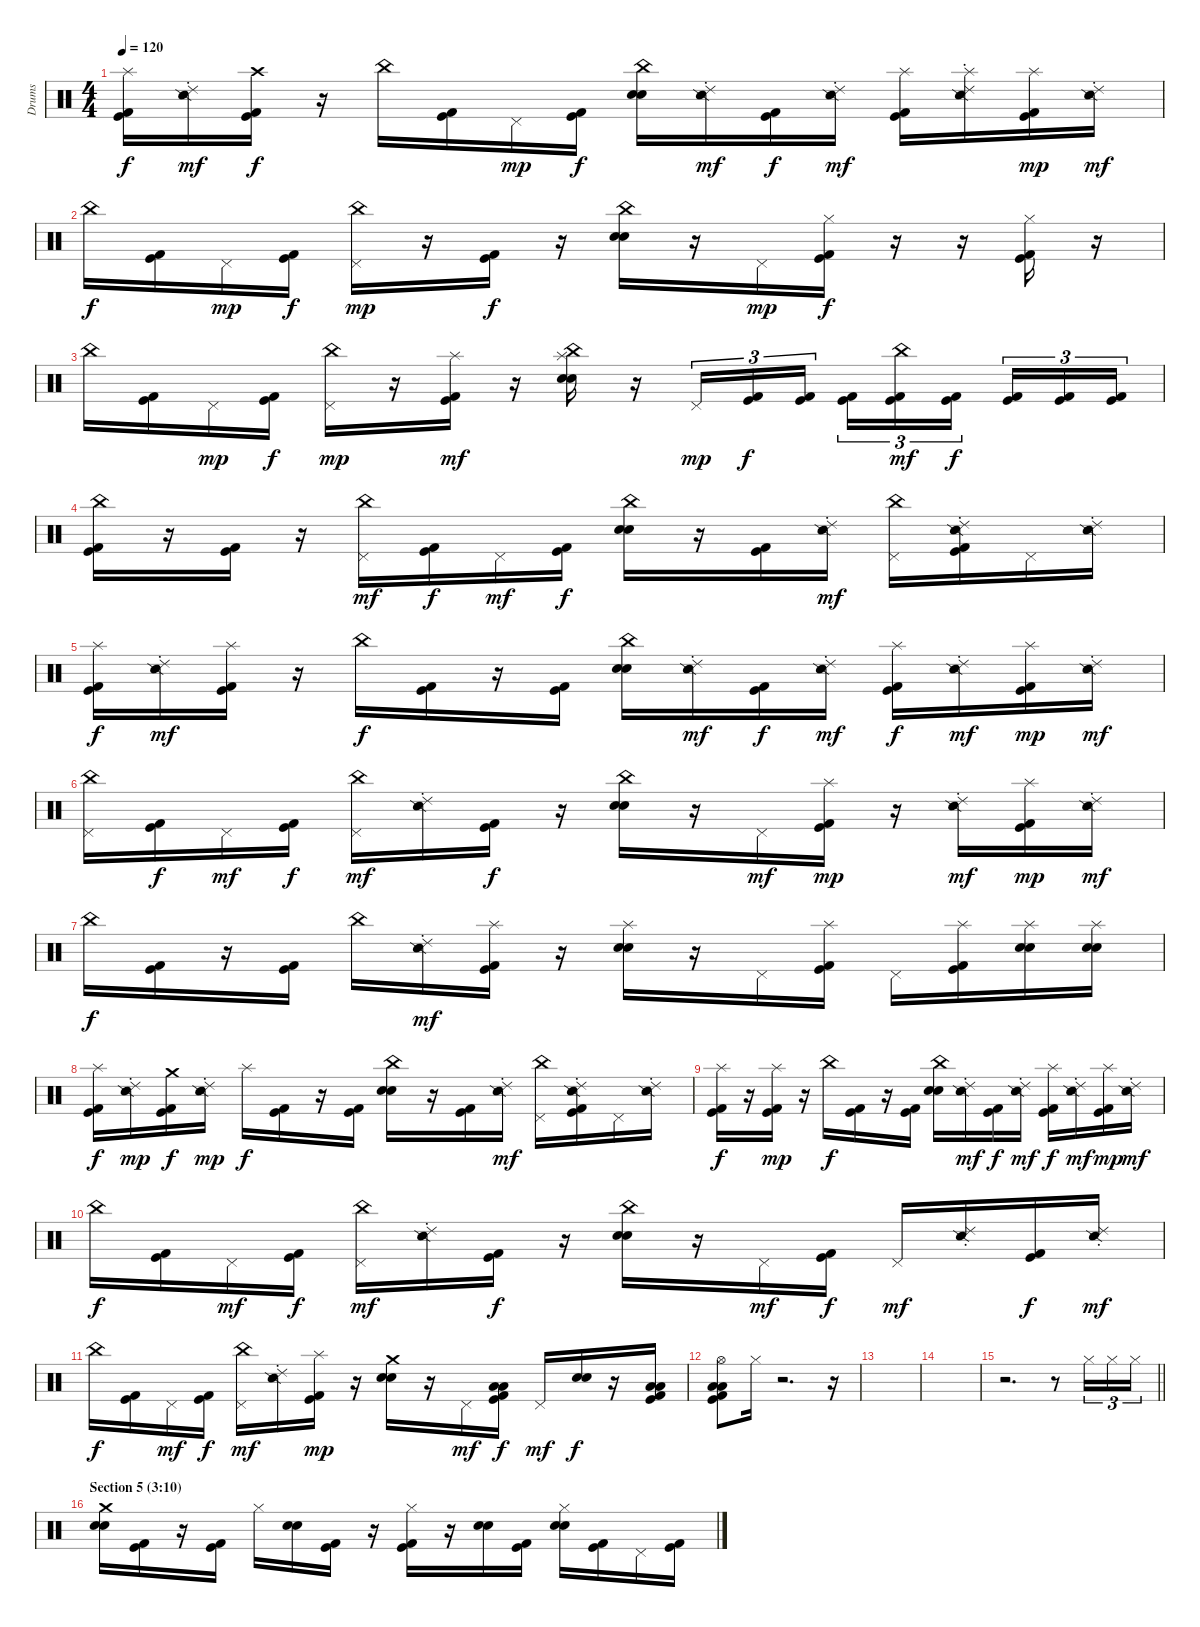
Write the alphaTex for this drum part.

\track ("Drums" "Drums") {instrument percussion}
\staff {score}
\articulation defaults
\ts (4 4)
\tempo 120
\clef neutral
\ks c
("Splash (hit)" "Kick (hit) 2" "Kick (hit)").16{dy f} ("Snare (side stick) 2" "Ride (choke) 2").16{dy mf} ("Crash high (hit)" "Kick (hit) 2" "Kick (hit)").16{dy f} r.16 "China (hit)".16 ("Kick (hit) 2" "Kick (hit)").16 "Pedal Hi-Hat (hit)".16{dy mp} ("Kick (hit) 2" "Kick (hit)").16{dy f} ("China (hit)" "Electric Snare (hit)" "Electric Snare (hit)").16 ("Snare (side stick) 2" "Ride (choke) 2").16{dy mf} ("Kick (hit) 2" "Kick (hit)").16{dy f} ("Snare (side stick) 2" "Ride (choke) 2").16{dy mf} ("Splash (hit)" "Kick (hit) 2" "Kick (hit)").16 ("Splash (hit)" "Snare (side stick) 2" "Ride (choke) 2").16 ("Splash (hit)" "Kick (hit) 2" "Kick (hit)").16{dy mp} ("Snare (side stick) 2" "Ride (choke) 2").16{dy mf} |
"China (hit)".16{dy f} ("Kick (hit) 2" "Kick (hit)").16 "Pedal Hi-Hat (hit)".16{dy mp} ("Kick (hit) 2" "Kick (hit)").16{dy f} ("Pedal Hi-Hat (hit)" "China (hit)").16{dy mp} r.16 ("Kick (hit) 2" "Kick (hit)").16{dy f} r.16 ("China (hit)" "Electric Snare (hit)" "Electric Snare (hit)").16 r.16 "Pedal Hi-Hat (hit)".16{dy mp} ("Hi-Hat (closed)" "Kick (hit) 2" "Kick (hit)").16{dy f} r.16 r.16 ("Hi-Hat (closed)" "Kick (hit) 2" "Kick (hit)").16 r.16 |
"China (hit)".16 ("Kick (hit) 2" "Kick (hit)").16 "Pedal Hi-Hat (hit)".16{dy mp} ("Kick (hit) 2" "Kick (hit)").16{dy f} ("Pedal Hi-Hat (hit)" "China (hit)").16{dy mp} r.16 ("Splash (hit)" "Kick (hit) 2" "Kick (hit)").16{dy mf} r.16 ("Splash (hit)" "China (hit)" "Electric Snare (hit)" "Electric Snare (hit)").16 r.16 "Pedal Hi-Hat (hit)".16{tu (3 2) dy mp} ("Kick (hit) 2" "Kick (hit)").16{tu (3 2) dy f} ("Kick (hit) 2" "Kick (hit)").16{tu (3 2)} ("Kick (hit) 2" "Kick (hit)").16{tu (3 2)} ("China (hit)" "Kick (hit) 2" "Kick (hit)").16{tu (3 2) dy mf} ("Kick (hit) 2" "Kick (hit)").16{tu (3 2) dy f beam splitsecondary} ("Kick (hit) 2" "Kick (hit)").16{tu (3 2)} ("Kick (hit) 2" "Kick (hit)").16{tu (3 2)} ("Kick (hit) 2" "Kick (hit)").16{tu (3 2)} |
("China (hit)" "Kick (hit) 2" "Kick (hit)").16 r.16 ("Kick (hit) 2" "Kick (hit)").16 r.16 ("Pedal Hi-Hat (hit)" "China (hit)").16{dy mf} ("Kick (hit) 2" "Kick (hit)").16{dy f} "Pedal Hi-Hat (hit)".16{dy mf} ("Kick (hit) 2" "Kick (hit)").16{dy f} ("China (hit)" "Electric Snare (hit)" "Electric Snare (hit)").16 r.16 ("Kick (hit) 2" "Kick (hit)").16 ("Snare (side stick) 2" "Ride (choke) 2").16{dy mf} ("Pedal Hi-Hat (hit)" "China (hit)").16 ("Snare (side stick) 2" "Ride (choke) 2" "Kick (hit) 2" "Kick (hit)").16 "Pedal Hi-Hat (hit)".16 ("Snare (side stick) 2" "Ride (choke) 2").16 |
("Splash (hit)" "Kick (hit) 2" "Kick (hit)").16{dy f} ("Snare (side stick) 2" "Ride (choke) 2").16{dy mf} ("Splash (hit)" "Kick (hit) 2" "Kick (hit)").16 r.16 "China (hit)".16{dy f} ("Kick (hit) 2" "Kick (hit)").16 r.16 ("Kick (hit) 2" "Kick (hit)").16 ("China (hit)" "Electric Snare (hit)" "Electric Snare (hit)").16 ("Snare (side stick) 2" "Ride (choke) 2").16{dy mf} ("Kick (hit) 2" "Kick (hit)").16{dy f} ("Snare (side stick) 2" "Ride (choke) 2").16{dy mf} ("Splash (hit)" "Kick (hit) 2" "Kick (hit)").16{dy f} ("Snare (side stick) 2" "Ride (choke) 2").16{dy mf} ("Splash (hit)" "Kick (hit) 2" "Kick (hit)").16{dy mp} ("Snare (side stick) 2" "Ride (choke) 2").16{dy mf} |
("Pedal Hi-Hat (hit)" "China (hit)").16 ("Kick (hit) 2" "Kick (hit)").16{dy f} "Pedal Hi-Hat (hit)".16{dy mf} ("Kick (hit) 2" "Kick (hit)").16{dy f} ("Pedal Hi-Hat (hit)" "China (hit)").16{dy mf} ("Snare (side stick) 2" "Ride (choke) 2").16 ("Kick (hit) 2" "Kick (hit)").16{dy f} r.16 ("China (hit)" "Electric Snare (hit)" "Electric Snare (hit)").16 r.16 "Pedal Hi-Hat (hit)".16{dy mf} ("Splash (hit)" "Kick (hit) 2" "Kick (hit)").16{dy mp} r.16 ("Snare (side stick) 2" "Ride (choke) 2").16{dy mf} ("Splash (hit)" "Kick (hit) 2" "Kick (hit)").16{dy mp} ("Snare (side stick) 2" "Ride (choke) 2").16{dy mf} |
"China (hit)".16{dy f} ("Kick (hit) 2" "Kick (hit)").16 r.16 ("Kick (hit) 2" "Kick (hit)").16 "China (hit)".16 ("Snare (side stick) 2" "Ride (choke) 2").16{dy mf} ("Splash (hit)" "Kick (hit) 2" "Kick (hit)").16 r.16 ("Splash (hit)" "Electric Snare (hit)" "Electric Snare (hit)").16 r.16 "Pedal Hi-Hat (hit)".16 ("Splash (hit)" "Kick (hit) 2" "Kick (hit)").16 "Pedal Hi-Hat (hit)".16 ("Splash (hit)" "Kick (hit) 2" "Kick (hit)").16 ("Splash (hit)" "Electric Snare (hit)" "Electric Snare (hit)").16 ("Splash (hit)" "Electric Snare (hit)" "Electric Snare (hit)").16 |
("Splash (hit)" "Kick (hit) 2" "Kick (hit)").16{dy f} ("Snare (side stick) 2" "Ride (choke) 2").16{dy mp} ("Crash medium (hit)" "Kick (hit) 2" "Kick (hit)").16{dy f} ("Snare (side stick) 2" "Ride (choke) 2").16{dy mp} "Splash (hit)".16{dy f} ("Kick (hit) 2" "Kick (hit)").16 r.16 ("Kick (hit) 2" "Kick (hit)").16 ("China (hit)" "Electric Snare (hit)" "Electric Snare (hit)").16 r.16 ("Kick (hit) 2" "Kick (hit)").16 ("Snare (side stick) 2" "Ride (choke) 2").16{dy mf} ("Pedal Hi-Hat (hit)" "China (hit)").16 ("Snare (side stick) 2" "Ride (choke) 2" "Kick (hit) 2" "Kick (hit)").16 "Pedal Hi-Hat (hit)".16 ("Snare (side stick) 2" "Ride (choke) 2").16 |
("Splash (hit)" "Kick (hit) 2" "Kick (hit)").16{dy f} r.16 ("Splash (hit)" "Kick (hit) 2" "Kick (hit)").16{dy mp} r.16 "China (hit)".16{dy f} ("Kick (hit) 2" "Kick (hit)").16 r.16 ("Kick (hit) 2" "Kick (hit)").16 ("China (hit)" "Electric Snare (hit)" "Electric Snare (hit)").16 ("Snare (side stick) 2" "Ride (choke) 2").16{dy mf} ("Kick (hit) 2" "Kick (hit)").16{dy f} ("Snare (side stick) 2" "Ride (choke) 2").16{dy mf} ("Splash (hit)" "Kick (hit) 2" "Kick (hit)").16{dy f} ("Snare (side stick) 2" "Ride (choke) 2").16{dy mf} ("Splash (hit)" "Kick (hit) 2" "Kick (hit)").16{dy mp} ("Snare (side stick) 2" "Ride (choke) 2").16{dy mf} |
"China (hit)".16{dy f} ("Kick (hit) 2" "Kick (hit)").16 "Pedal Hi-Hat (hit)".16{dy mf} ("Kick (hit) 2" "Kick (hit)").16{dy f} ("Pedal Hi-Hat (hit)" "China (hit)").16{dy mf} ("Snare (side stick) 2" "Ride (choke) 2").16 ("Kick (hit) 2" "Kick (hit)").16{dy f} r.16 ("China (hit)" "Electric Snare (hit)" "Electric Snare (hit)").16 r.16 "Pedal Hi-Hat (hit)".16{dy mf} ("Kick (hit) 2" "Kick (hit)").16{dy f} "Pedal Hi-Hat (hit)".16{dy mf} ("Snare (side stick) 2" "Ride (choke) 2").16 ("Kick (hit) 2" "Kick (hit)").16{dy f} ("Snare (side stick) 2" "Ride (choke) 2").16{dy mf} |
"China (hit)".16{dy f} ("Kick (hit) 2" "Kick (hit)").16 "Pedal Hi-Hat (hit)".16{dy mf} ("Kick (hit) 2" "Kick (hit)").16{dy f} ("Pedal Hi-Hat (hit)" "China (hit)").16{dy mf} ("Snare (side stick) 2" "Ride (choke) 2").16 ("Splash (hit)" "Kick (hit) 2" "Kick (hit)").16{dy mp} r.16 ("Crash medium (hit)" "Electric Snare (hit)" "Electric Snare (hit)").16 r.16 "Pedal Hi-Hat (hit)".16{dy mf} ("Low Floor Tom (hit)" "Low Floor Tom (hit)" "Kick (hit) 2" "Kick (hit)").16{dy f} "Pedal Hi-Hat (hit)".16{dy mf} ("Electric Snare (hit)" "Electric Snare (hit)").16{dy f} r.16 ("Low Floor Tom (hit)" "Low Floor Tom (hit)" "Kick (hit) 2" "Kick (hit)").16 |
("Hi-Hat (open)" "Low Floor Tom (hit)" "Low Floor Tom (hit)" "Kick (hit) 2" "Kick (hit)").8 "Hi-Hat (closed)".16 r.2{d} r.16 |
|
|
\barLineRight lightlight
r.2{d} r.8 "Hi-Hat (closed)".16{tu (3 2)} "Hi-Hat (closed)".16{tu (3 2)} "Hi-Hat (closed)".16{tu (3 2)} |
\section ("" "Section 5 (3:10)")
("Crash medium (hit)" "Electric Snare (hit)" "Electric Snare (hit)").16 ("Kick (hit) 2" "Kick (hit)").16 r.16 ("Kick (hit) 2" "Kick (hit)").16 "Hi-Hat (closed)".16 ("Electric Snare (hit)" "Electric Snare (hit)").16 ("Kick (hit) 2" "Kick (hit)").16 r.16 ("Hi-Hat (closed)" "Kick (hit) 2" "Kick (hit)").16 r.16 ("Electric Snare (hit)" "Electric Snare (hit)").16 ("Kick (hit) 2" "Kick (hit)").16 ("Hi-Hat (closed)" "Electric Snare (hit)" "Electric Snare (hit)").16 ("Kick (hit) 2" "Kick (hit)").16 "Pedal Hi-Hat (hit)".16 ("Kick (hit) 2" "Kick (hit)").16
